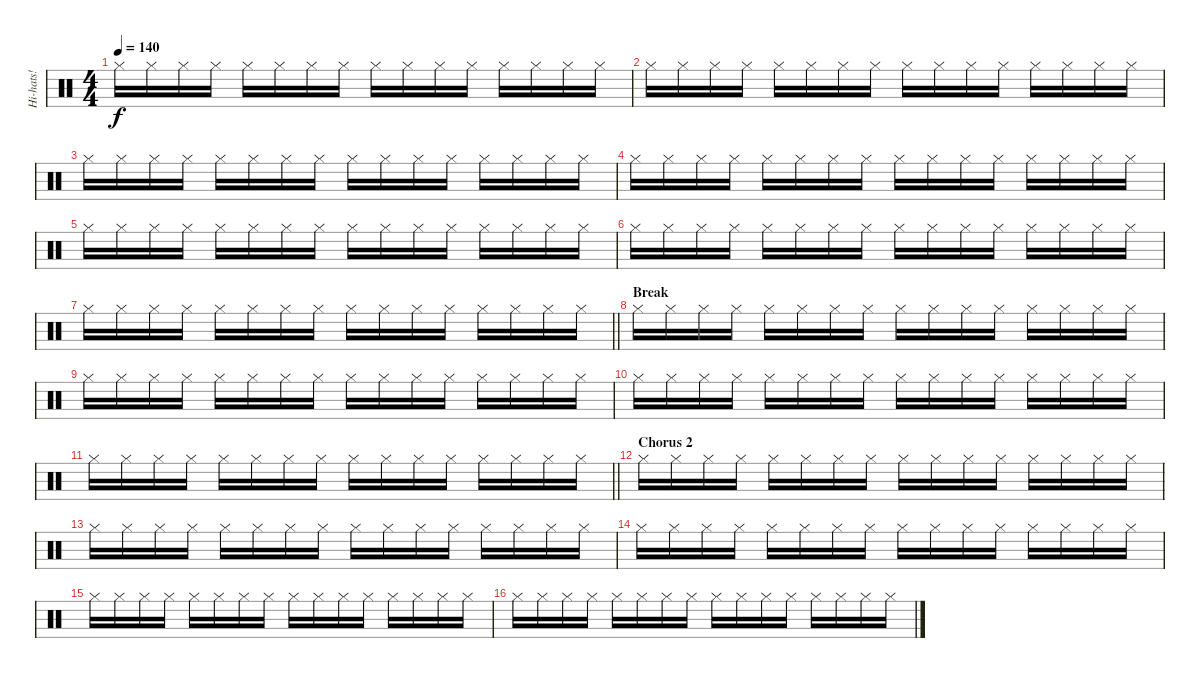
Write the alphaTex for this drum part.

\track ("Hi-hats!" "Hi-hats!") {instrument percussion}
\staff {score}
\articulation defaults
\ts (4 4)
\tempo 140
\clef neutral
\ks c "Hi-Hat (closed)".16{dy f} "Hi-Hat (closed)".16 "Hi-Hat (closed)".16 "Hi-Hat (closed)".16 "Hi-Hat (closed)".16 "Hi-Hat (closed)".16 "Hi-Hat (closed)".16 "Hi-Hat (closed)".16 "Hi-Hat (closed)".16 "Hi-Hat (closed)".16 "Hi-Hat (closed)".16 "Hi-Hat (closed)".16 "Hi-Hat (closed)".16 "Hi-Hat (closed)".16 "Hi-Hat (closed)".16 "Hi-Hat (closed)".16
|
"Hi-Hat (closed)".16 "Hi-Hat (closed)".16 "Hi-Hat (closed)".16 "Hi-Hat (closed)".16 "Hi-Hat (closed)".16 "Hi-Hat (closed)".16 "Hi-Hat (closed)".16 "Hi-Hat (closed)".16 "Hi-Hat (closed)".16 "Hi-Hat (closed)".16 "Hi-Hat (closed)".16 "Hi-Hat (closed)".16 "Hi-Hat (closed)".16 "Hi-Hat (closed)".16 "Hi-Hat (closed)".16 "Hi-Hat (closed)".16 |
"Hi-Hat (closed)".16 "Hi-Hat (closed)".16 "Hi-Hat (closed)".16 "Hi-Hat (closed)".16 "Hi-Hat (closed)".16 "Hi-Hat (closed)".16 "Hi-Hat (closed)".16 "Hi-Hat (closed)".16 "Hi-Hat (closed)".16 "Hi-Hat (closed)".16 "Hi-Hat (closed)".16 "Hi-Hat (closed)".16 "Hi-Hat (closed)".16 "Hi-Hat (closed)".16 "Hi-Hat (closed)".16 "Hi-Hat (closed)".16 |
"Hi-Hat (closed)".16 "Hi-Hat (closed)".16 "Hi-Hat (closed)".16 "Hi-Hat (closed)".16 "Hi-Hat (closed)".16 "Hi-Hat (closed)".16 "Hi-Hat (closed)".16 "Hi-Hat (closed)".16 "Hi-Hat (closed)".16 "Hi-Hat (closed)".16 "Hi-Hat (closed)".16 "Hi-Hat (closed)".16 "Hi-Hat (closed)".16 "Hi-Hat (closed)".16 "Hi-Hat (closed)".16 "Hi-Hat (closed)".16 |
"Hi-Hat (closed)".16 "Hi-Hat (closed)".16 "Hi-Hat (closed)".16 "Hi-Hat (closed)".16 "Hi-Hat (closed)".16 "Hi-Hat (closed)".16 "Hi-Hat (closed)".16 "Hi-Hat (closed)".16 "Hi-Hat (closed)".16 "Hi-Hat (closed)".16 "Hi-Hat (closed)".16 "Hi-Hat (closed)".16 "Hi-Hat (closed)".16 "Hi-Hat (closed)".16 "Hi-Hat (closed)".16 "Hi-Hat (closed)".16 |
"Hi-Hat (closed)".16 "Hi-Hat (closed)".16 "Hi-Hat (closed)".16 "Hi-Hat (closed)".16 "Hi-Hat (closed)".16 "Hi-Hat (closed)".16 "Hi-Hat (closed)".16 "Hi-Hat (closed)".16 "Hi-Hat (closed)".16 "Hi-Hat (closed)".16 "Hi-Hat (closed)".16 "Hi-Hat (closed)".16 "Hi-Hat (closed)".16 "Hi-Hat (closed)".16 "Hi-Hat (closed)".16 "Hi-Hat (closed)".16 |
\barLineRight lightlight "Hi-Hat (closed)".16 "Hi-Hat (closed)".16 "Hi-Hat (closed)".16 "Hi-Hat (closed)".16 "Hi-Hat (closed)".16 "Hi-Hat (closed)".16 "Hi-Hat (closed)".16 "Hi-Hat (closed)".16 "Hi-Hat (closed)".16 "Hi-Hat (closed)".16 "Hi-Hat (closed)".16 "Hi-Hat (closed)".16 "Hi-Hat (closed)".16 "Hi-Hat (closed)".16 "Hi-Hat (closed)".16 "Hi-Hat (closed)".16
|
\section ("" "Break")
"Hi-Hat (closed)".16 "Hi-Hat (closed)".16 "Hi-Hat (closed)".16 "Hi-Hat (closed)".16 "Hi-Hat (closed)".16 "Hi-Hat (closed)".16 "Hi-Hat (closed)".16 "Hi-Hat (closed)".16 "Hi-Hat (closed)".16 "Hi-Hat (closed)".16 "Hi-Hat (closed)".16 "Hi-Hat (closed)".16 "Hi-Hat (closed)".16 "Hi-Hat (closed)".16 "Hi-Hat (closed)".16 "Hi-Hat (closed)".16 |
"Hi-Hat (closed)".16 "Hi-Hat (closed)".16 "Hi-Hat (closed)".16 "Hi-Hat (closed)".16 "Hi-Hat (closed)".16 "Hi-Hat (closed)".16 "Hi-Hat (closed)".16 "Hi-Hat (closed)".16 "Hi-Hat (closed)".16 "Hi-Hat (closed)".16 "Hi-Hat (closed)".16 "Hi-Hat (closed)".16 "Hi-Hat (closed)".16 "Hi-Hat (closed)".16 "Hi-Hat (closed)".16 "Hi-Hat (closed)".16 |
"Hi-Hat (closed)".16 "Hi-Hat (closed)".16 "Hi-Hat (closed)".16 "Hi-Hat (closed)".16 "Hi-Hat (closed)".16 "Hi-Hat (closed)".16 "Hi-Hat (closed)".16 "Hi-Hat (closed)".16 "Hi-Hat (closed)".16 "Hi-Hat (closed)".16 "Hi-Hat (closed)".16 "Hi-Hat (closed)".16 "Hi-Hat (closed)".16 "Hi-Hat (closed)".16 "Hi-Hat (closed)".16 "Hi-Hat (closed)".16 |
\barLineRight lightlight "Hi-Hat (closed)".16 "Hi-Hat (closed)".16 "Hi-Hat (closed)".16 "Hi-Hat (closed)".16 "Hi-Hat (closed)".16 "Hi-Hat (closed)".16 "Hi-Hat (closed)".16 "Hi-Hat (closed)".16 "Hi-Hat (closed)".16 "Hi-Hat (closed)".16 "Hi-Hat (closed)".16 "Hi-Hat (closed)".16 "Hi-Hat (closed)".16 "Hi-Hat (closed)".16 "Hi-Hat (closed)".16 "Hi-Hat (closed)".16
|
\section ("" "Chorus 2")
"Hi-Hat (closed)".16 "Hi-Hat (closed)".16 "Hi-Hat (closed)".16 "Hi-Hat (closed)".16 "Hi-Hat (closed)".16 "Hi-Hat (closed)".16 "Hi-Hat (closed)".16 "Hi-Hat (closed)".16 "Hi-Hat (closed)".16 "Hi-Hat (closed)".16 "Hi-Hat (closed)".16 "Hi-Hat (closed)".16 "Hi-Hat (closed)".16 "Hi-Hat (closed)".16 "Hi-Hat (closed)".16 "Hi-Hat (closed)".16 |
"Hi-Hat (closed)".16 "Hi-Hat (closed)".16 "Hi-Hat (closed)".16 "Hi-Hat (closed)".16 "Hi-Hat (closed)".16 "Hi-Hat (closed)".16 "Hi-Hat (closed)".16 "Hi-Hat (closed)".16 "Hi-Hat (closed)".16 "Hi-Hat (closed)".16 "Hi-Hat (closed)".16 "Hi-Hat (closed)".16 "Hi-Hat (closed)".16 "Hi-Hat (closed)".16 "Hi-Hat (closed)".16 "Hi-Hat (closed)".16 |
"Hi-Hat (closed)".16 "Hi-Hat (closed)".16 "Hi-Hat (closed)".16 "Hi-Hat (closed)".16 "Hi-Hat (closed)".16 "Hi-Hat (closed)".16 "Hi-Hat (closed)".16 "Hi-Hat (closed)".16 "Hi-Hat (closed)".16 "Hi-Hat (closed)".16 "Hi-Hat (closed)".16 "Hi-Hat (closed)".16 "Hi-Hat (closed)".16 "Hi-Hat (closed)".16 "Hi-Hat (closed)".16 "Hi-Hat (closed)".16 |
"Hi-Hat (closed)".16 "Hi-Hat (closed)".16 "Hi-Hat (closed)".16 "Hi-Hat (closed)".16 "Hi-Hat (closed)".16 "Hi-Hat (closed)".16 "Hi-Hat (closed)".16 "Hi-Hat (closed)".16 "Hi-Hat (closed)".16 "Hi-Hat (closed)".16 "Hi-Hat (closed)".16 "Hi-Hat (closed)".16 "Hi-Hat (closed)".16 "Hi-Hat (closed)".16 "Hi-Hat (closed)".16 "Hi-Hat (closed)".16 |
"Hi-Hat (closed)".16 "Hi-Hat (closed)".16 "Hi-Hat (closed)".16 "Hi-Hat (closed)".16 "Hi-Hat (closed)".16 "Hi-Hat (closed)".16 "Hi-Hat (closed)".16 "Hi-Hat (closed)".16 "Hi-Hat (closed)".16 "Hi-Hat (closed)".16 "Hi-Hat (closed)".16 "Hi-Hat (closed)".16 "Hi-Hat (closed)".16 "Hi-Hat (closed)".16 "Hi-Hat (closed)".16 "Hi-Hat (closed)".16
